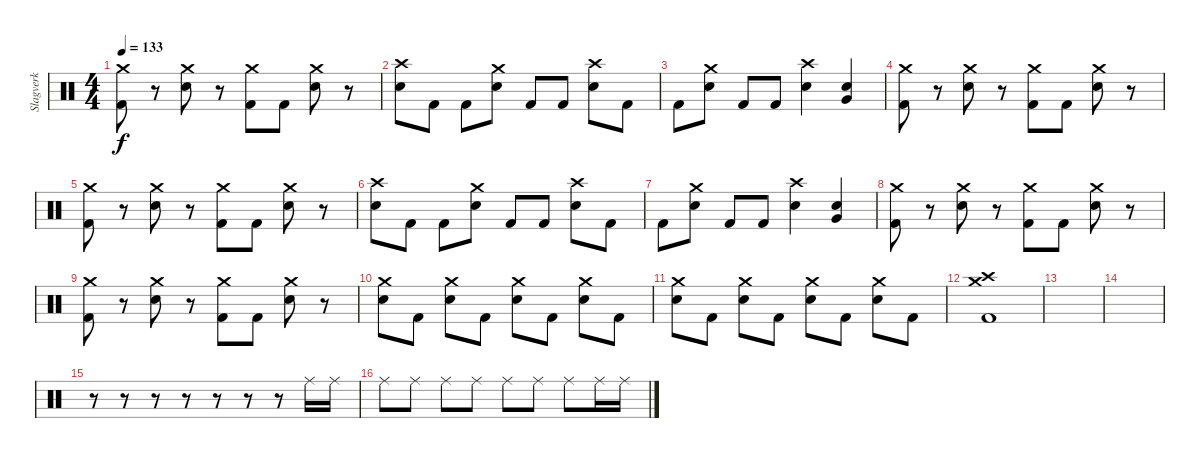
\track ("Slagverk" "Slagverk") {instrument percussion}
\staff {score}
\articulation defaults
\ts (4 4)
\tempo 133
\clef neutral
\ks c
("Crash medium (hit)" "Kick (hit) 2").8{dy f} r.8 ("Crash medium (hit)" "Snare (hit) 2").8 r.8 ("Crash medium (hit)" "Kick (hit) 2").8 "Kick (hit) 2".8 ("Crash medium (hit)" "Snare (hit) 2").8 r.8 |
("Crash high (hit)" "Snare (hit) 2").8 "Kick (hit) 2".8 "Kick (hit) 2".8 ("Crash medium (hit)" "Snare (hit) 2").8 "Kick (hit) 2".8 "Kick (hit) 2".8 ("Crash high (hit)" "Snare (hit) 2").8 "Kick (hit) 2".8 |
"Kick (hit) 2".8 ("Crash medium (hit)" "Snare (hit) 2").8 "Kick (hit) 2".8 "Kick (hit) 2".8 ("Crash high (hit)" "Snare (hit) 2").4 ("Very Low Tom (hit)" "Snare (hit) 2").4 |
("Crash medium (hit)" "Kick (hit) 2").8 r.8 ("Crash medium (hit)" "Snare (hit) 2").8 r.8 ("Crash medium (hit)" "Kick (hit) 2").8 "Kick (hit) 2".8 ("Crash medium (hit)" "Snare (hit) 2").8 r.8 |
("Crash medium (hit)" "Kick (hit) 2").8 r.8 ("Crash medium (hit)" "Snare (hit) 2").8 r.8 ("Crash medium (hit)" "Kick (hit) 2").8 "Kick (hit) 2".8 ("Crash medium (hit)" "Snare (hit) 2").8 r.8 |
("Crash high (hit)" "Snare (hit) 2").8 "Kick (hit) 2".8 "Kick (hit) 2".8 ("Crash medium (hit)" "Snare (hit) 2").8 "Kick (hit) 2".8 "Kick (hit) 2".8 ("Crash high (hit)" "Snare (hit) 2").8 "Kick (hit) 2".8 |
"Kick (hit) 2".8 ("Crash medium (hit)" "Snare (hit) 2").8 "Kick (hit) 2".8 "Kick (hit) 2".8 ("Crash high (hit)" "Snare (hit) 2").4 ("Very Low Tom (hit)" "Snare (hit) 2").4 |
("Crash medium (hit)" "Kick (hit) 2").8 r.8 ("Crash medium (hit)" "Snare (hit) 2").8 r.8 ("Crash medium (hit)" "Kick (hit) 2").8 "Kick (hit) 2".8 ("Crash medium (hit)" "Snare (hit) 2").8 r.8 |
("Crash medium (hit)" "Kick (hit) 2").8 r.8 ("Crash medium (hit)" "Snare (hit) 2").8 r.8 ("Crash medium (hit)" "Kick (hit) 2").8 "Kick (hit) 2".8 ("Crash medium (hit)" "Snare (hit) 2").8 r.8 |
("Crash medium (hit)" "Snare (hit) 2").8 "Kick (hit) 2".8 ("Crash medium (hit)" "Snare (hit) 2").8 "Kick (hit) 2".8 ("Crash medium (hit)" "Snare (hit) 2").8 "Kick (hit) 2".8 ("Crash medium (hit)" "Snare (hit) 2").8 "Kick (hit) 2".8 |
("Crash medium (hit)" "Snare (hit) 2").8 "Kick (hit) 2".8 ("Crash medium (hit)" "Snare (hit) 2").8 "Kick (hit) 2".8 ("Crash medium (hit)" "Snare (hit) 2").8 "Kick (hit) 2".8 ("Crash medium (hit)" "Snare (hit) 2").8 "Kick (hit) 2".8 |
("Crash high (hit)" "Crash medium (hit)" "Kick (hit) 2").1 |
|
|
r.8 r.8 r.8 r.8 r.8 r.8 r.8 "Ride (middle)".16 "Ride (middle)".16 |
"Ride (middle)".8 "Ride (middle)".8 "Ride (middle)".8 "Ride (middle)".8 "Ride (middle)".8 "Ride (middle)".8 "Ride (middle)".8 "Ride (middle)".16 "Ride (middle)".16
